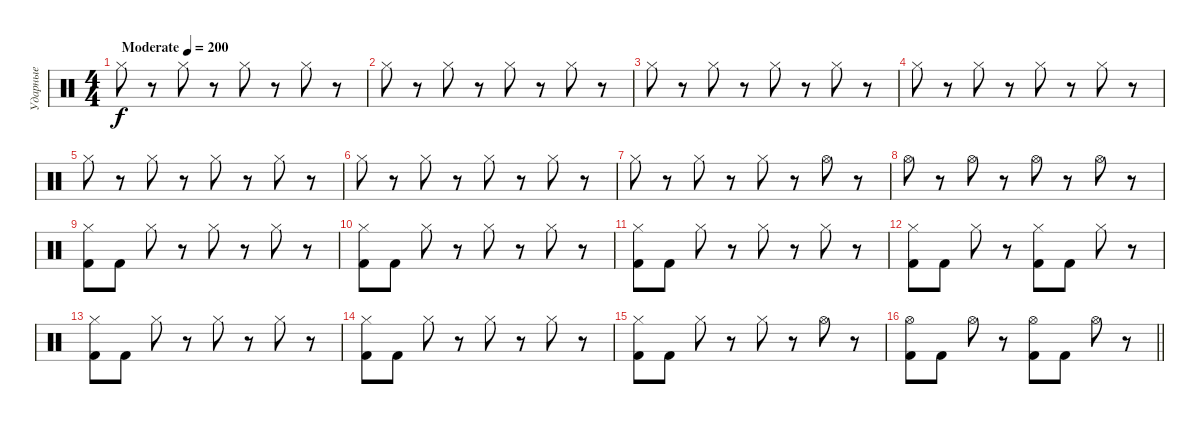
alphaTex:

\track ("Ударные" "Ударные") {instrument percussion}
\staff {score}
\articulation defaults
\ts (4 4)
\tempo (200 "Moderate")
\clef neutral
\ks c "Hi-Hat (closed)".8{dy f}
r.8 "Hi-Hat (closed)".8 r.8 "Hi-Hat (closed)".8 r.8 "Hi-Hat (closed)".8 r.8 |
"Hi-Hat (closed)".8 r.8 "Hi-Hat (closed)".8 r.8 "Hi-Hat (closed)".8 r.8 "Hi-Hat (closed)".8 r.8 |
"Hi-Hat (closed)".8 r.8 "Hi-Hat (closed)".8 r.8 "Hi-Hat (closed)".8 r.8 "Hi-Hat (closed)".8 r.8 |
"Hi-Hat (closed)".8 r.8 "Hi-Hat (closed)".8 r.8 "Hi-Hat (closed)".8 r.8 "Hi-Hat (closed)".8 r.8 |
"Hi-Hat (closed)".8 r.8 "Hi-Hat (closed)".8 r.8 "Hi-Hat (closed)".8 r.8 "Hi-Hat (closed)".8 r.8 |
"Hi-Hat (closed)".8 r.8 "Hi-Hat (closed)".8 r.8 "Hi-Hat (closed)".8 r.8 "Hi-Hat (closed)".8 r.8 |
"Hi-Hat (closed)".8 r.8 "Hi-Hat (closed)".8 r.8 "Hi-Hat (closed)".8 r.8 "Hi-Hat (open)".8 r.8 |
"Hi-Hat (open)".8 r.8 "Hi-Hat (open)".8 r.8 "Hi-Hat (open)".8 r.8 "Hi-Hat (open)".8 r.8 |
("Hi-Hat (closed)" "Kick (hit) 2").8 "Kick (hit) 2".8 "Hi-Hat (closed)".8 r.8 "Hi-Hat (closed)".8 r.8 "Hi-Hat (closed)".8 r.8 |
("Hi-Hat (closed)" "Kick (hit) 2").8 "Kick (hit) 2".8 "Hi-Hat (closed)".8 r.8 "Hi-Hat (closed)".8 r.8 "Hi-Hat (closed)".8 r.8 |
("Hi-Hat (closed)" "Kick (hit) 2").8 "Kick (hit) 2".8 "Hi-Hat (closed)".8 r.8 "Hi-Hat (closed)".8 r.8 "Hi-Hat (closed)".8 r.8 |
("Hi-Hat (closed)" "Kick (hit) 2").8 "Kick (hit) 2".8 "Hi-Hat (closed)".8 r.8 ("Hi-Hat (closed)" "Kick (hit) 2").8 "Kick (hit) 2".8 "Hi-Hat (closed)".8 r.8 |
("Hi-Hat (closed)" "Kick (hit) 2").8 "Kick (hit) 2".8 "Hi-Hat (closed)".8 r.8 "Hi-Hat (closed)".8 r.8 "Hi-Hat (closed)".8 r.8 |
("Hi-Hat (closed)" "Kick (hit) 2").8 "Kick (hit) 2".8 "Hi-Hat (closed)".8 r.8 "Hi-Hat (closed)".8 r.8 "Hi-Hat (closed)".8 r.8 |
("Hi-Hat (closed)" "Kick (hit) 2").8 "Kick (hit) 2".8 "Hi-Hat (closed)".8 r.8 "Hi-Hat (closed)".8 r.8 "Hi-Hat (open)".8 r.8 |
\barLineRight lightlight
("Hi-Hat (open)" "Kick (hit) 2").8 "Kick (hit) 2".8 "Hi-Hat (open)".8 r.8 ("Hi-Hat (open)" "Kick (hit) 2").8 "Kick (hit) 2".8 "Hi-Hat (open)".8 r.8
